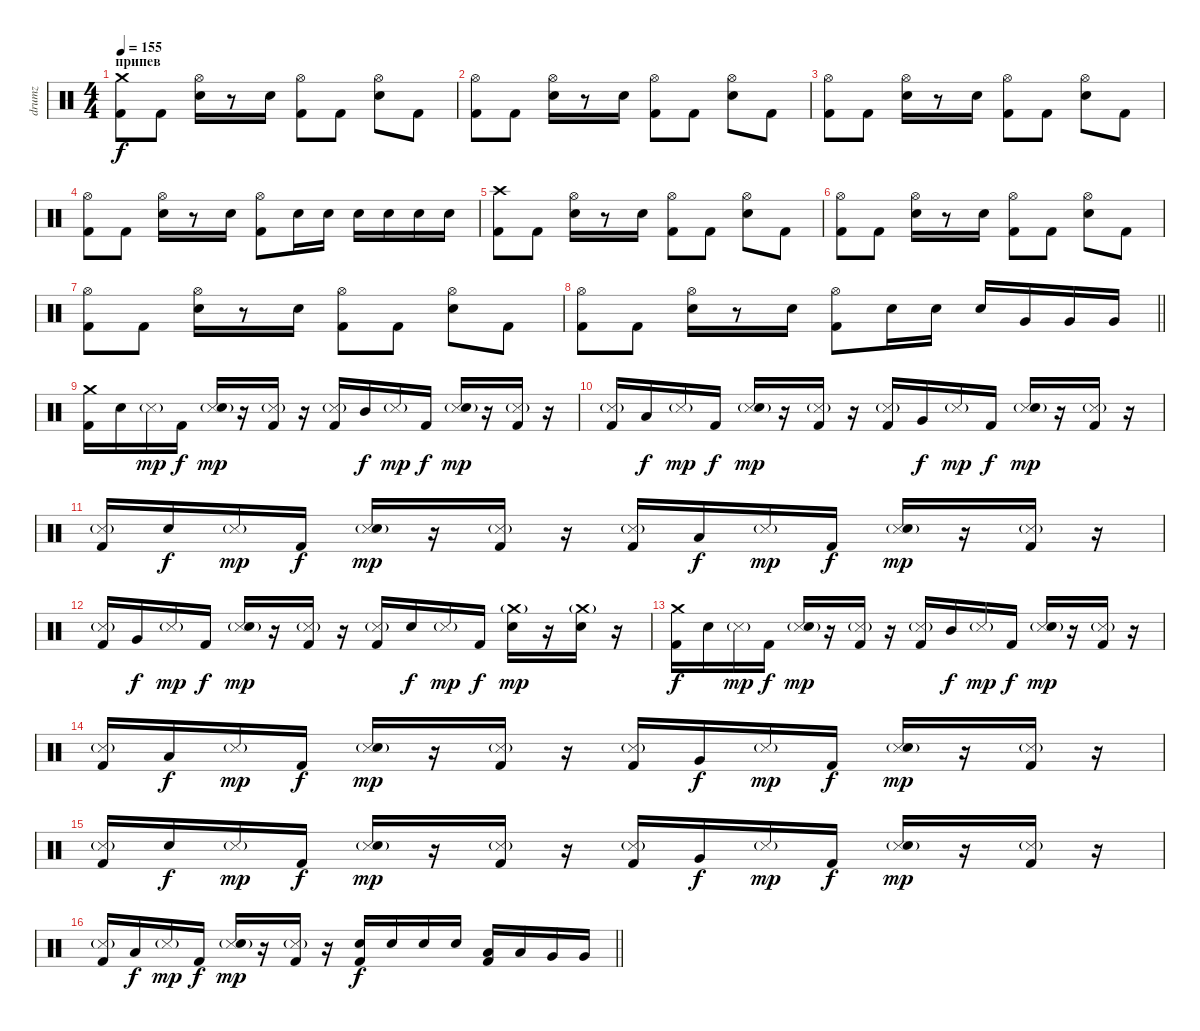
\track ("drumz" "drumz") {instrument percussion}
\staff {score}
\articulation defaults
\ts (4 4)
\section ("" "припев")
\tempo 155
\clef neutral
\ks c
("Crash medium (hit)" "Kick (hit) 2").8{dy f} "Kick (hit) 2".8 ("Hi-Hat (open)" "Electric Snare (hit)").16 r.8 "Electric Snare (hit)".16 ("Hi-Hat (open)" "Kick (hit) 2").8 "Kick (hit) 2".8 ("Hi-Hat (open)" "Electric Snare (hit)").8 "Kick (hit) 2".8 |
("Hi-Hat (open)" "Kick (hit) 2").8 "Kick (hit) 2".8 ("Hi-Hat (open)" "Electric Snare (hit)").16 r.8 "Electric Snare (hit)".16 ("Hi-Hat (open)" "Kick (hit) 2").8 "Kick (hit) 2".8 ("Hi-Hat (open)" "Electric Snare (hit)").8 "Kick (hit) 2".8 |
("Hi-Hat (open)" "Kick (hit) 2").8 "Kick (hit) 2".8 ("Hi-Hat (open)" "Electric Snare (hit)").16 r.8 "Electric Snare (hit)".16 ("Hi-Hat (open)" "Kick (hit) 2").8 "Kick (hit) 2".8 ("Hi-Hat (open)" "Electric Snare (hit)").8 "Kick (hit) 2".8 |
("Hi-Hat (open)" "Kick (hit) 2").8 "Kick (hit) 2".8 ("Hi-Hat (open)" "Electric Snare (hit)").16 r.8 "Electric Snare (hit)".16 ("Hi-Hat (open)" "Kick (hit) 2").8 "Electric Snare (hit)".16 "Electric Snare (hit)".16 "Electric Snare (hit)".16 "Electric Snare (hit)".16 "Electric Snare (hit)".16 "Electric Snare (hit)".16 |
("Crash high (hit)" "Kick (hit) 2").8 "Kick (hit) 2".8 ("Hi-Hat (open)" "Electric Snare (hit)").16 r.8 "Electric Snare (hit)".16 ("Hi-Hat (open)" "Kick (hit) 2").8 "Kick (hit) 2".8 ("Hi-Hat (open)" "Electric Snare (hit)").8 "Kick (hit) 2".8 |
("Hi-Hat (open)" "Kick (hit) 2").8 "Kick (hit) 2".8 ("Hi-Hat (open)" "Electric Snare (hit)").16 r.8 "Electric Snare (hit)".16 ("Hi-Hat (open)" "Kick (hit) 2").8 "Kick (hit) 2".8 ("Hi-Hat (open)" "Electric Snare (hit)").8 "Kick (hit) 2".8 |
("Hi-Hat (open)" "Kick (hit) 2").8 "Kick (hit) 2".8 ("Hi-Hat (open)" "Electric Snare (hit)").16 r.8 "Electric Snare (hit)".16 ("Hi-Hat (open)" "Kick (hit) 2").8 "Kick (hit) 2".8 ("Hi-Hat (open)" "Electric Snare (hit)").8 "Kick (hit) 2".8 |
\barLineRight lightlight
("Hi-Hat (open)" "Kick (hit) 2").8 "Kick (hit) 2".8 ("Hi-Hat (open)" "Electric Snare (hit)").16 r.8 "Electric Snare (hit)".16 ("Hi-Hat (open)" "Kick (hit) 2").8 "Electric Snare (hit)".16 "Electric Snare (hit)".16 "Electric Snare (hit)".16 "Very Low Tom (hit)".16 "Very Low Tom (hit)".16 "Very Low Tom (hit)".16 |
\section ("" "")
("Crash medium (hit)" "Kick (hit) 2").16 "Electric Snare (hit)".16 "Metronome (hit)"{g}.16{dy mp} "Kick (hit) 2".16{dy f} ("Metronome (hit)"{g} "Electric Snare (hit)").16{dy mp} r.16 ("Metronome (hit)"{g} "Kick (hit) 2").16 r.16 ("Metronome (hit)"{g} "Kick (hit) 2").16 "Mid Tom (hit)".16{dy f} "Metronome (hit)"{g}.16{dy mp} "Kick (hit) 2".16{dy f} ("Metronome (hit)"{g} "Electric Snare (hit)").16{dy mp} r.16 ("Metronome (hit)"{g} "Kick (hit) 2").16 r.16 |
("Metronome (hit)"{g} "Kick (hit) 2").16 "Low Tom (hit)".16{dy f} "Metronome (hit)"{g}.16{dy mp} "Kick (hit) 2".16{dy f} ("Metronome (hit)"{g} "Electric Snare (hit)").16{dy mp} r.16 ("Metronome (hit)"{g} "Kick (hit) 2").16 r.16 ("Metronome (hit)"{g} "Kick (hit) 2").16 "Very Low Tom (hit)".16{dy f} "Metronome (hit)"{g}.16{dy mp} "Kick (hit) 2".16{dy f} ("Metronome (hit)"{g} "Electric Snare (hit)").16{dy mp} r.16 ("Metronome (hit)"{g} "Kick (hit) 2").16 r.16 |
("Metronome (hit)"{g} "Kick (hit) 2").16 "Electric Snare (hit)".16{dy f} "Metronome (hit)"{g}.16{dy mp} "Kick (hit) 2".16{dy f} ("Metronome (hit)"{g} "Electric Snare (hit)").16{dy mp} r.16 ("Metronome (hit)"{g} "Kick (hit) 2").16 r.16 ("Metronome (hit)"{g} "Kick (hit) 2").16 "Low Tom (hit)".16{dy f} "Metronome (hit)"{g}.16{dy mp} "Kick (hit) 2".16{dy f} ("Metronome (hit)"{g} "Electric Snare (hit)").16{dy mp} r.16 ("Metronome (hit)"{g} "Kick (hit) 2").16 r.16 |
("Metronome (hit)"{g} "Kick (hit) 2").16 "Very Low Tom (hit)".16{dy f} "Metronome (hit)"{g}.16{dy mp} "Kick (hit) 2".16{dy f} ("Metronome (hit)"{g} "Electric Snare (hit)").16{dy mp} r.16 ("Metronome (hit)"{g} "Kick (hit) 2").16 r.16 ("Metronome (hit)"{g} "Kick (hit) 2").16 "Electric Snare (hit)".16{dy f} "Metronome (hit)"{g}.16{dy mp} "Kick (hit) 2".16{dy f} ("Crash medium (hit)"{g} "Electric Snare (hit)").16{dy mp} r.16 ("Crash medium (hit)"{g} "Electric Snare (hit)").16 r.16 |
("Crash medium (hit)" "Kick (hit) 2").16{dy f} "Electric Snare (hit)".16 "Metronome (hit)"{g}.16{dy mp} "Kick (hit) 2".16{dy f} ("Metronome (hit)"{g} "Electric Snare (hit)").16{dy mp} r.16 ("Metronome (hit)"{g} "Kick (hit) 2").16 r.16 ("Metronome (hit)"{g} "Kick (hit) 2").16 "Mid Tom (hit)".16{dy f} "Metronome (hit)"{g}.16{dy mp} "Kick (hit) 2".16{dy f} ("Metronome (hit)"{g} "Electric Snare (hit)").16{dy mp} r.16 ("Metronome (hit)"{g} "Kick (hit) 2").16 r.16 |
("Metronome (hit)"{g} "Kick (hit) 2").16 "Low Tom (hit)".16{dy f} "Metronome (hit)"{g}.16{dy mp} "Kick (hit) 2".16{dy f} ("Metronome (hit)"{g} "Electric Snare (hit)").16{dy mp} r.16 ("Metronome (hit)"{g} "Kick (hit) 2").16 r.16 ("Metronome (hit)"{g} "Kick (hit) 2").16 "Very Low Tom (hit)".16{dy f} "Metronome (hit)"{g}.16{dy mp} "Kick (hit) 2".16{dy f} ("Metronome (hit)"{g} "Electric Snare (hit)").16{dy mp} r.16 ("Metronome (hit)"{g} "Kick (hit) 2").16 r.16 |
("Metronome (hit)"{g} "Kick (hit) 2").16 "Electric Snare (hit)".16{dy f} "Metronome (hit)"{g}.16{dy mp} "Kick (hit) 2".16{dy f} ("Metronome (hit)"{g} "Electric Snare (hit)").16{dy mp} r.16 ("Metronome (hit)"{g} "Kick (hit) 2").16 r.16 ("Metronome (hit)"{g} "Kick (hit) 2").16 "Very Low Tom (hit)".16{dy f} "Metronome (hit)"{g}.16{dy mp} "Kick (hit) 2".16{dy f} ("Metronome (hit)"{g} "Electric Snare (hit)").16{dy mp} r.16 ("Metronome (hit)"{g} "Kick (hit) 2").16 r.16 |
\barLineRight lightlight
("Metronome (hit)"{g} "Kick (hit) 2").16 "Low Tom (hit)".16{dy f} "Metronome (hit)"{g}.16{dy mp} "Kick (hit) 2".16{dy f} ("Metronome (hit)"{g} "Electric Snare (hit)").16{dy mp} r.16 ("Metronome (hit)"{g} "Kick (hit) 2").16 r.16 ("Electric Snare (hit)" "Kick (hit) 2").16{dy f} "Electric Snare (hit)".16 "Electric Snare (hit)".16 "Electric Snare (hit)".16 ("Low Tom (hit)" "Kick (hit) 2").16 "Low Tom (hit)".16 "Very Low Tom (hit)".16 "Very Low Tom (hit)".16
